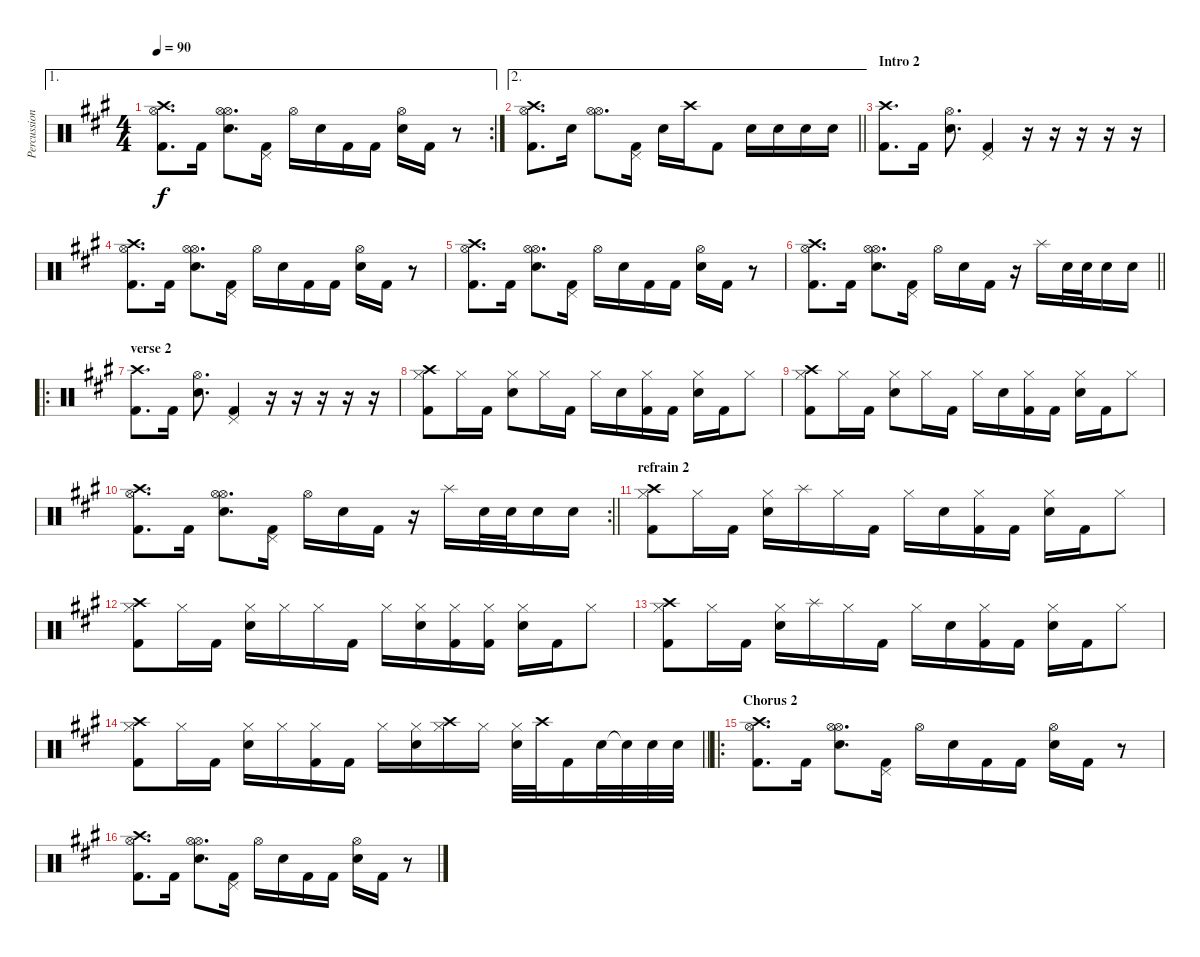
\track ("Percussion" "Percussion") {instrument percussion}
\staff {score}
\articulation defaults
\ae 1
\rc 2
\ts (4 4)
\tempo 90
\clef neutral
\ks a
("Hi-Hat (open)" "Crash high (hit)" "Kick (hit) 2").8{d dy f} "Kick (hit) 2".16 ("Hi-Hat (open)" "Electric Snare (hit)" "Hi-Hat (open)").8{d} ("Pedal Hi-Hat (hit)" "Kick (hit) 2").16 "Hi-Hat (open)".16 "Electric Snare (hit)".16 "Kick (hit) 2".16 "Kick (hit) 2".16 ("Hi-Hat (open)" "Electric Snare (hit)").16 "Kick (hit) 2".16 r.8 |
\ae 2
\barLineRight lightlight
("Hi-Hat (open)" "Crash high (hit)" "Kick (hit) 2").8{d} "Electric Snare (hit)".16 ("Hi-Hat (open)" "Hi-Hat (open)").8{d} ("Pedal Hi-Hat (hit)" "Kick (hit) 2").16 "Electric Snare (hit)".16 "Crash high (hit)".16 "Kick (hit) 2".8 "Electric Snare (hit)".16 "Electric Snare (hit)".16 "Electric Snare (hit)".16 "Electric Snare (hit)".16 |
\section ("" "Intro 2")
("Crash high (hit)" "Kick (hit) 2").8{d} "Kick (hit) 2".16 ("Electric Snare (hit)" "Hi-Hat (open)").8{d} ("Pedal Hi-Hat (hit)" "Kick (hit) 2").4 r.16 r.16 r.16 r.16 r.16 |
("Hi-Hat (open)" "Crash high (hit)" "Kick (hit) 2").8{d} "Kick (hit) 2".16 ("Hi-Hat (open)" "Electric Snare (hit)" "Hi-Hat (open)").8{d} ("Pedal Hi-Hat (hit)" "Kick (hit) 2").16 "Hi-Hat (open)".16 "Electric Snare (hit)".16 "Kick (hit) 2".16 "Kick (hit) 2".16 ("Hi-Hat (open)" "Electric Snare (hit)").16 "Kick (hit) 2".16 r.8 |
("Hi-Hat (open)" "Crash high (hit)" "Kick (hit) 2").8{d} "Kick (hit) 2".16 ("Hi-Hat (open)" "Electric Snare (hit)" "Hi-Hat (open)").8{d} ("Pedal Hi-Hat (hit)" "Kick (hit) 2").16 "Hi-Hat (open)".16 "Electric Snare (hit)".16 "Kick (hit) 2".16 "Kick (hit) 2".16 ("Hi-Hat (open)" "Electric Snare (hit)").16 "Kick (hit) 2".16 r.8 |
\barLineRight lightlight
("Hi-Hat (open)" "Crash high (hit)" "Kick (hit) 2").8{d} "Kick (hit) 2".16 ("Hi-Hat (open)" "Electric Snare (hit)" "Hi-Hat (open)").8{d} ("Pedal Hi-Hat (hit)" "Kick (hit) 2").16 "Hi-Hat (open)".16 "Electric Snare (hit)".16 "Kick (hit) 2".16 r.16 "Splash (hit)".16 "Electric Snare (hit)".32 "Electric Snare (hit)".32 "Electric Snare (hit)".16 "Electric Snare (hit)".16 |
\ro
\section ("" "verse 2")
("Crash high (hit)" "Kick (hit) 2").8{d} "Kick (hit) 2".16 ("Electric Snare (hit)" "Hi-Hat (open)").8{d} ("Pedal Hi-Hat (hit)" "Kick (hit) 2").4 r.16 r.16 r.16 r.16 r.16 |
("Hi-Hat (closed)" "Crash high (hit)" "Kick (hit) 2").8 "Hi-Hat (closed)".16 "Kick (hit) 2".16 ("Hi-Hat (closed)" "Electric Snare (hit)").8 "Hi-Hat (closed)".16 "Kick (hit) 2".16 "Hi-Hat (closed)".16 "Electric Snare (hit)".16 ("Hi-Hat (closed)" "Kick (hit) 2").16 "Kick (hit) 2".16 ("Hi-Hat (closed)" "Electric Snare (hit)").16 "Kick (hit) 2".16 "Hi-Hat (closed)".8 |
("Hi-Hat (closed)" "Crash high (hit)" "Kick (hit) 2").8 "Hi-Hat (closed)".16 "Kick (hit) 2".16 ("Hi-Hat (closed)" "Electric Snare (hit)").8 "Hi-Hat (closed)".16 "Kick (hit) 2".16 "Hi-Hat (closed)".16 "Electric Snare (hit)".16 ("Hi-Hat (closed)" "Kick (hit) 2").16 "Kick (hit) 2".16 ("Hi-Hat (closed)" "Electric Snare (hit)").16 "Kick (hit) 2".16 "Hi-Hat (closed)".8 |
\rc 2
\barLineRight lightlight
("Hi-Hat (open)" "Crash high (hit)" "Kick (hit) 2").8{d} "Kick (hit) 2".16 ("Hi-Hat (open)" "Electric Snare (hit)" "Hi-Hat (open)").8{d} ("Pedal Hi-Hat (hit)" "Kick (hit) 2").16 "Hi-Hat (open)".16 "Electric Snare (hit)".16 "Kick (hit) 2".16 r.16 "Splash (hit)".16 "Electric Snare (hit)".32 "Electric Snare (hit)".32 "Electric Snare (hit)".16 "Electric Snare (hit)".16 |
\section ("" "refrain 2")
("Hi-Hat (closed)" "Crash high (hit)" "Kick (hit) 2").8 "Hi-Hat (closed)".16 "Kick (hit) 2".16 ("Hi-Hat (closed)" "Electric Snare (hit)").16 "Splash (hit)".16 "Hi-Hat (closed)".16 "Kick (hit) 2".16 "Hi-Hat (closed)".16 "Electric Snare (hit)".16 ("Hi-Hat (closed)" "Kick (hit) 2").16 "Kick (hit) 2".16 ("Hi-Hat (closed)" "Electric Snare (hit)").16 "Kick (hit) 2".16 "Hi-Hat (closed)".8 |
("Hi-Hat (closed)" "Crash high (hit)" "Kick (hit) 2").8 "Hi-Hat (closed)".16 "Kick (hit) 2".16 ("Hi-Hat (closed)" "Electric Snare (hit)").16 "Hi-Hat (closed)".16 "Hi-Hat (closed)".16 "Kick (hit) 2".16 "Hi-Hat (closed)".16 ("Hi-Hat (closed)" "Electric Snare (hit)").16 ("Hi-Hat (closed)" "Kick (hit) 2").16 ("Hi-Hat (closed)" "Kick (hit) 2").16 ("Hi-Hat (closed)" "Electric Snare (hit)").16 "Kick (hit) 2".16 "Hi-Hat (closed)".8 |
("Hi-Hat (closed)" "Crash high (hit)" "Kick (hit) 2").8 "Hi-Hat (closed)".16 "Kick (hit) 2".16 ("Hi-Hat (closed)" "Electric Snare (hit)").16 "Splash (hit)".16 "Hi-Hat (closed)".16 "Kick (hit) 2".16 "Hi-Hat (closed)".16 "Electric Snare (hit)".16 ("Hi-Hat (closed)" "Kick (hit) 2").16 "Kick (hit) 2".16 ("Hi-Hat (closed)" "Electric Snare (hit)").16 "Kick (hit) 2".16 "Hi-Hat (closed)".8 |
\barLineRight lightlight
("Hi-Hat (closed)" "Crash high (hit)" "Kick (hit) 2").8 "Hi-Hat (closed)".16 "Kick (hit) 2".16 ("Hi-Hat (closed)" "Electric Snare (hit)").16 "Hi-Hat (closed)".16 ("Hi-Hat (closed)" "Kick (hit) 2").16 "Kick (hit) 2".16 "Hi-Hat (closed)".16 ("Hi-Hat (closed)" "Electric Snare (hit)").16 ("Hi-Hat (closed)" "Crash high (hit)").16 "Hi-Hat (closed)".16 ("Hi-Hat (closed)" "Electric Snare (hit)").32 "Crash high (hit)".32 "Kick (hit) 2".16 "Electric Snare (hit)".32 "Electric Snare (hit)"{t}.32 "Electric Snare (hit)".32 "Electric Snare (hit)".32 |
\ro
\section ("" "Chorus 2")
("Hi-Hat (open)" "Crash high (hit)" "Kick (hit) 2").8{d} "Kick (hit) 2".16 ("Hi-Hat (open)" "Electric Snare (hit)" "Hi-Hat (open)").8{d} ("Pedal Hi-Hat (hit)" "Kick (hit) 2").16 "Hi-Hat (open)".16 "Electric Snare (hit)".16 "Kick (hit) 2".16 "Kick (hit) 2".16 ("Hi-Hat (open)" "Electric Snare (hit)").16 "Kick (hit) 2".16 r.8 |
("Hi-Hat (open)" "Crash high (hit)" "Kick (hit) 2").8{d} "Kick (hit) 2".16 ("Hi-Hat (open)" "Electric Snare (hit)" "Hi-Hat (open)").8{d} ("Pedal Hi-Hat (hit)" "Kick (hit) 2").16 "Hi-Hat (open)".16 "Electric Snare (hit)".16 "Kick (hit) 2".16 "Kick (hit) 2".16 ("Hi-Hat (open)" "Electric Snare (hit)").16 "Kick (hit) 2".16 r.8
